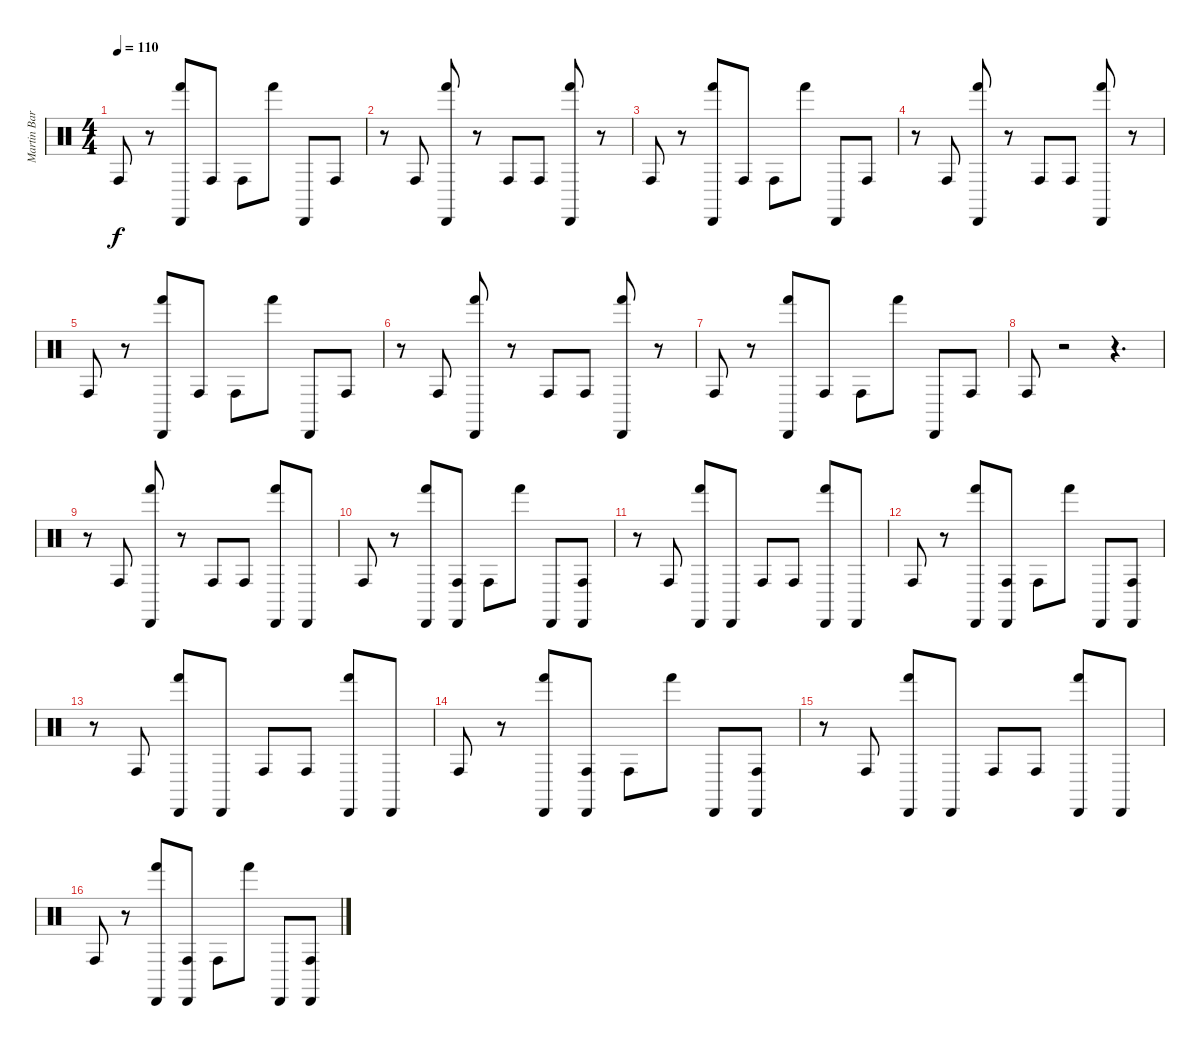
\track ("Martin Barret" "Martin Bar") {instrument percussion}
\staff {score}
\articulation defaults
\ts (4 4)
\tempo 110
\clef neutral
\ks c "Conga high (hit)".8{dy f}
r.8 ("Cabasa (hit)" "Hand (hit)").8 "Conga high (hit)".8 "Conga high (hit)".8 "Hand (hit)".8 "Cabasa (hit)".8 "Conga high (hit)".8 |
r.8 "Conga high (hit)".8 ("Cabasa (hit)" "Hand (hit)").8 r.8 "Conga high (hit)".8 "Conga high (hit)".8 ("Cabasa (hit)" "Hand (hit)").8 r.8 |
"Conga high (hit)".8 r.8 ("Cabasa (hit)" "Hand (hit)").8 "Conga high (hit)".8 "Conga high (hit)".8 "Hand (hit)".8 "Cabasa (hit)".8 "Conga high (hit)".8 |
r.8 "Conga high (hit)".8 ("Cabasa (hit)" "Hand (hit)").8 r.8 "Conga high (hit)".8 "Conga high (hit)".8 ("Cabasa (hit)" "Hand (hit)").8 r.8 |
"Conga high (hit)".8 r.8 ("Cabasa (hit)" "Hand (hit)").8 "Conga high (hit)".8 "Conga high (hit)".8 "Hand (hit)".8 "Cabasa (hit)".8 "Conga high (hit)".8 |
r.8 "Conga high (hit)".8 ("Cabasa (hit)" "Hand (hit)").8 r.8 "Conga high (hit)".8 "Conga high (hit)".8 ("Cabasa (hit)" "Hand (hit)").8 r.8 |
"Conga high (hit)".8 r.8 ("Cabasa (hit)" "Hand (hit)").8 "Conga high (hit)".8 "Conga high (hit)".8 "Hand (hit)".8 "Cabasa (hit)".8 "Conga high (hit)".8 |
"Conga high (hit)".8 r.2 r.4{d} |
r.8 "Conga high (hit)".8 ("Cabasa (hit)" "Hand (hit)").8 r.8 "Conga high (hit)".8 "Conga high (hit)".8 ("Cabasa (hit)" "Hand (hit)").8 "Cabasa (hit)".8 |
"Conga high (hit)".8 r.8 ("Cabasa (hit)" "Hand (hit)").8 ("Cabasa (hit)" "Conga high (hit)").8 "Conga high (hit)".8 "Hand (hit)".8 "Cabasa (hit)".8 ("Cabasa (hit)" "Conga high (hit)").8 |
r.8 "Conga high (hit)".8 ("Cabasa (hit)" "Hand (hit)").8 "Cabasa (hit)".8 "Conga high (hit)".8 "Conga high (hit)".8 ("Cabasa (hit)" "Hand (hit)").8 "Cabasa (hit)".8 |
"Conga high (hit)".8 r.8 ("Cabasa (hit)" "Hand (hit)").8 ("Cabasa (hit)" "Conga high (hit)").8 "Conga high (hit)".8 "Hand (hit)".8 "Cabasa (hit)".8 ("Cabasa (hit)" "Conga high (hit)").8 |
r.8 "Conga high (hit)".8 ("Cabasa (hit)" "Hand (hit)").8 "Cabasa (hit)".8 "Conga high (hit)".8 "Conga high (hit)".8 ("Cabasa (hit)" "Hand (hit)").8 "Cabasa (hit)".8 |
"Conga high (hit)".8 r.8 ("Cabasa (hit)" "Hand (hit)").8 ("Cabasa (hit)" "Conga high (hit)").8 "Conga high (hit)".8 "Hand (hit)".8 "Cabasa (hit)".8 ("Cabasa (hit)" "Conga high (hit)").8 |
r.8 "Conga high (hit)".8 ("Cabasa (hit)" "Hand (hit)").8 "Cabasa (hit)".8 "Conga high (hit)".8 "Conga high (hit)".8 ("Cabasa (hit)" "Hand (hit)").8 "Cabasa (hit)".8 |
"Conga high (hit)".8 r.8 ("Cabasa (hit)" "Hand (hit)").8 ("Cabasa (hit)" "Conga high (hit)").8 "Conga high (hit)".8 "Hand (hit)".8 "Cabasa (hit)".8 ("Cabasa (hit)" "Conga high (hit)").8
